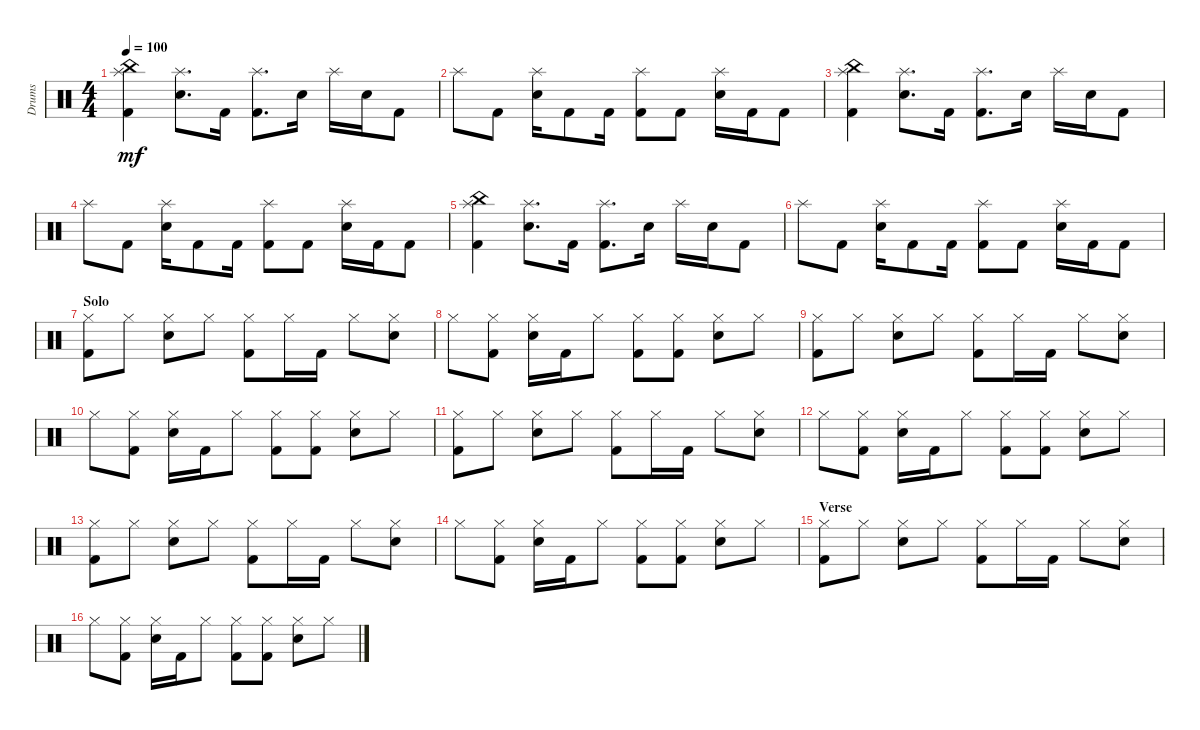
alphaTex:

\defaultSystemsLayout 4
\bracketExtendMode groupsimilarinstruments
\otherSystemsTrackNameOrientation horizontal
\track ("Prakarsh" "Drums") {instrument percussion}
\staff {score}
\articulation defaults
\ts (4 4)
\tempo 100
\clef neutral
\ks c
("Kick (hit) 2" "China (hit)" "Splash (hit)").4{dy mf beam Down} ("Snare (hit) 2" "Splash (hit)").8{d beam Down} "Kick (hit) 2".16{beam Down} ("Kick (hit) 2" "Splash (hit)").8{d beam Down} "Snare (hit) 2".16{beam Down} "Splash (hit)".16{beam Down} "Snare (hit) 2".16{beam Down} "Kick (hit) 2".8{beam Down} |
"Splash (hit)".8{beam Down} "Kick (hit) 2".8{beam Down} ("Snare (hit) 2" "Splash (hit)").16{beam Down} "Kick (hit) 2".8{beam Down} "Kick (hit) 2".16{beam Down} ("Kick (hit) 2" "Splash (hit)").8{beam Down} "Kick (hit) 2".8{beam Down} ("Snare (hit) 2" "Splash (hit)").16{beam Down} "Kick (hit) 2".16{beam Down} "Kick (hit) 2".8{beam Down} |
("Kick (hit) 2" "China (hit)" "Splash (hit)").4{beam Down} ("Snare (hit) 2" "Splash (hit)").8{d beam Down} "Kick (hit) 2".16{beam Down} ("Kick (hit) 2" "Splash (hit)").8{d beam Down} "Snare (hit) 2".16{beam Down} "Splash (hit)".16{beam Down} "Snare (hit) 2".16{beam Down} "Kick (hit) 2".8{beam Down} |
"Splash (hit)".8{beam Down} "Kick (hit) 2".8{beam Down} ("Snare (hit) 2" "Splash (hit)").16{beam Down} "Kick (hit) 2".8{beam Down} "Kick (hit) 2".16{beam Down} ("Kick (hit) 2" "Splash (hit)").8{beam Down} "Kick (hit) 2".8{beam Down} ("Snare (hit) 2" "Splash (hit)").16{beam Down} "Kick (hit) 2".16{beam Down} "Kick (hit) 2".8{beam Down} |
("Kick (hit) 2" "China (hit)" "Splash (hit)").4{beam Down} ("Snare (hit) 2" "Splash (hit)").8{d beam Down} "Kick (hit) 2".16{beam Down} ("Kick (hit) 2" "Splash (hit)").8{d beam Down} "Snare (hit) 2".16{beam Down} "Splash (hit)".16{beam Down} "Snare (hit) 2".16{beam Down} "Kick (hit) 2".8{beam Down} |
"Splash (hit)".8{beam Down} "Kick (hit) 2".8{beam Down} ("Snare (hit) 2" "Splash (hit)").16{beam Down} "Kick (hit) 2".8{beam Down} "Kick (hit) 2".16{beam Down} ("Kick (hit) 2" "Splash (hit)").8{beam Down} "Kick (hit) 2".8{beam Down} ("Snare (hit) 2" "Splash (hit)").16{beam Down} "Kick (hit) 2".16{beam Down} "Kick (hit) 2".8{beam Down} |
\section ("" "Solo")
("Hi-Hat (closed)" "Kick (hit) 2").8{beam Down} "Hi-Hat (closed)".8{beam Down} ("Hi-Hat (closed)" "Snare (hit) 2").8{beam Down} "Hi-Hat (closed)".8{beam Down} ("Hi-Hat (closed)" "Kick (hit) 2").8{beam Down} "Hi-Hat (closed)".16{beam Down} "Kick (hit) 2".16{beam Down} "Hi-Hat (closed)".8{beam Down} ("Hi-Hat (closed)" "Snare (hit) 2").8{beam Down} |
"Hi-Hat (closed)".8{beam Down} ("Hi-Hat (closed)" "Kick (hit) 2").8{beam Down} ("Hi-Hat (closed)" "Snare (hit) 2").16{beam Down} "Kick (hit) 2".16{beam Down} "Hi-Hat (closed)".8{beam Down} ("Hi-Hat (closed)" "Kick (hit) 2").8{beam Down} ("Hi-Hat (closed)" "Kick (hit) 2").8{beam Down} ("Hi-Hat (closed)" "Snare (hit) 2").8{beam Down} "Hi-Hat (closed)".8{beam Down} |
("Hi-Hat (closed)" "Kick (hit) 2").8{beam Down} "Hi-Hat (closed)".8{beam Down} ("Hi-Hat (closed)" "Snare (hit) 2").8{beam Down} "Hi-Hat (closed)".8{beam Down} ("Hi-Hat (closed)" "Kick (hit) 2").8{beam Down} "Hi-Hat (closed)".16{beam Down} "Kick (hit) 2".16{beam Down} "Hi-Hat (closed)".8{beam Down} ("Hi-Hat (closed)" "Snare (hit) 2").8{beam Down} |
"Hi-Hat (closed)".8{beam Down} ("Hi-Hat (closed)" "Kick (hit) 2").8{beam Down} ("Hi-Hat (closed)" "Snare (hit) 2").16{beam Down} "Kick (hit) 2".16{beam Down} "Hi-Hat (closed)".8{beam Down} ("Hi-Hat (closed)" "Kick (hit) 2").8{beam Down} ("Hi-Hat (closed)" "Kick (hit) 2").8{beam Down} ("Hi-Hat (closed)" "Snare (hit) 2").8{beam Down} "Hi-Hat (closed)".8{beam Down} |
("Hi-Hat (closed)" "Kick (hit) 2").8{beam Down} "Hi-Hat (closed)".8{beam Down} ("Hi-Hat (closed)" "Snare (hit) 2").8{beam Down} "Hi-Hat (closed)".8{beam Down} ("Hi-Hat (closed)" "Kick (hit) 2").8{beam Down} "Hi-Hat (closed)".16{beam Down} "Kick (hit) 2".16{beam Down} "Hi-Hat (closed)".8{beam Down} ("Hi-Hat (closed)" "Snare (hit) 2").8{beam Down} |
"Hi-Hat (closed)".8{beam Down} ("Hi-Hat (closed)" "Kick (hit) 2").8{beam Down} ("Hi-Hat (closed)" "Snare (hit) 2").16{beam Down} "Kick (hit) 2".16{beam Down} "Hi-Hat (closed)".8{beam Down} ("Hi-Hat (closed)" "Kick (hit) 2").8{beam Down} ("Hi-Hat (closed)" "Kick (hit) 2").8{beam Down} ("Hi-Hat (closed)" "Snare (hit) 2").8{beam Down} "Hi-Hat (closed)".8{beam Down} |
("Hi-Hat (closed)" "Kick (hit) 2").8{beam Down} "Hi-Hat (closed)".8{beam Down} ("Hi-Hat (closed)" "Snare (hit) 2").8{beam Down} "Hi-Hat (closed)".8{beam Down} ("Hi-Hat (closed)" "Kick (hit) 2").8{beam Down} "Hi-Hat (closed)".16{beam Down} "Kick (hit) 2".16{beam Down} "Hi-Hat (closed)".8{beam Down} ("Hi-Hat (closed)" "Snare (hit) 2").8{beam Down} |
"Hi-Hat (closed)".8{beam Down} ("Hi-Hat (closed)" "Kick (hit) 2").8{beam Down} ("Hi-Hat (closed)" "Snare (hit) 2").16{beam Down} "Kick (hit) 2".16{beam Down} "Hi-Hat (closed)".8{beam Down} ("Hi-Hat (closed)" "Kick (hit) 2").8{beam Down} ("Hi-Hat (closed)" "Kick (hit) 2").8{beam Down} ("Hi-Hat (closed)" "Snare (hit) 2").8{beam Down} "Hi-Hat (closed)".8{beam Down} |
\section ("" "Verse")
("Hi-Hat (closed)" "Kick (hit) 2").8{beam Down} "Hi-Hat (closed)".8{beam Down} ("Hi-Hat (closed)" "Snare (hit) 2").8{beam Down} "Hi-Hat (closed)".8{beam Down} ("Hi-Hat (closed)" "Kick (hit) 2").8{beam Down} "Hi-Hat (closed)".16{beam Down} "Kick (hit) 2".16{beam Down} "Hi-Hat (closed)".8{beam Down} ("Hi-Hat (closed)" "Snare (hit) 2").8{beam Down} |
"Hi-Hat (closed)".8{beam Down} ("Hi-Hat (closed)" "Kick (hit) 2").8{beam Down} ("Hi-Hat (closed)" "Snare (hit) 2").16{beam Down} "Kick (hit) 2".16{beam Down} "Hi-Hat (closed)".8{beam Down} ("Hi-Hat (closed)" "Kick (hit) 2").8{beam Down} ("Hi-Hat (closed)" "Kick (hit) 2").8{beam Down} ("Hi-Hat (closed)" "Snare (hit) 2").8{beam Down} "Hi-Hat (closed)".8{beam Down}
